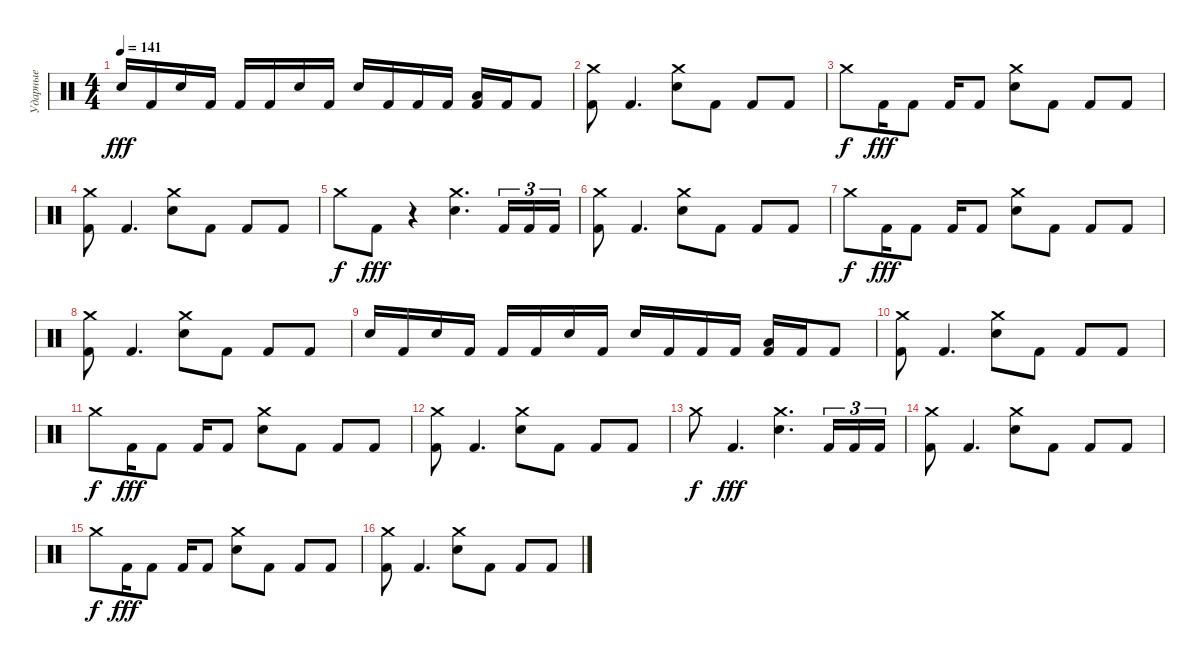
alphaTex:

\track ("Ударные" "Ударные") {instrument percussion}
\staff {score}
\articulation defaults
\ts (4 4)
\tempo 141
\clef neutral
\ks c "Electric Snare (hit)".16{dy fff} "Kick (hit) 2".16 "Electric Snare (hit)".16 "Kick (hit) 2".16 "Kick (hit) 2".16 "Kick (hit) 2".16 "Electric Snare (hit)".16 "Kick (hit) 2".16 "Electric Snare (hit)".16 "Kick (hit) 2".16 "Kick (hit) 2".16 "Kick (hit) 2".16
("Low Tom (hit)" "Kick (hit) 2").16 "Kick (hit) 2".16 "Kick (hit) 2".8 |
("Crash medium (hit)" "Kick (hit) 2").8 "Kick (hit) 2".4{d} ("Crash medium (hit)" "Electric Snare (hit)").8 "Kick (hit) 2".8 "Kick (hit) 2".8 "Kick (hit) 2".8 |
"Crash medium (hit)".8{dy f} "Kick (hit) 2".16{dy fff} "Kick (hit) 2".8 "Kick (hit) 2".16 "Kick (hit) 2".8 ("Crash medium (hit)" "Electric Snare (hit)").8 "Kick (hit) 2".8 "Kick (hit) 2".8 "Kick (hit) 2".8 |
("Crash medium (hit)" "Kick (hit) 2").8 "Kick (hit) 2".4{d} ("Crash medium (hit)" "Electric Snare (hit)").8 "Kick (hit) 2".8 "Kick (hit) 2".8 "Kick (hit) 2".8 |
"Crash medium (hit)".8{dy f} "Kick (hit) 2".8{dy fff} r.4 ("Crash medium (hit)" "Electric Snare (hit)").4{d} "Kick (hit) 2".16{tu (3 2)} "Kick (hit) 2".16{tu (3 2)} "Kick (hit) 2".16{tu (3 2)} |
("Crash medium (hit)" "Kick (hit) 2").8 "Kick (hit) 2".4{d} ("Crash medium (hit)" "Electric Snare (hit)").8 "Kick (hit) 2".8 "Kick (hit) 2".8 "Kick (hit) 2".8 |
"Crash medium (hit)".8{dy f} "Kick (hit) 2".16{dy fff} "Kick (hit) 2".8 "Kick (hit) 2".16 "Kick (hit) 2".8 ("Crash medium (hit)" "Electric Snare (hit)").8 "Kick (hit) 2".8 "Kick (hit) 2".8 "Kick (hit) 2".8 |
("Crash medium (hit)" "Kick (hit) 2").8 "Kick (hit) 2".4{d} ("Crash medium (hit)" "Electric Snare (hit)").8 "Kick (hit) 2".8 "Kick (hit) 2".8 "Kick (hit) 2".8 |
"Electric Snare (hit)".16 "Kick (hit) 2".16 "Electric Snare (hit)".16 "Kick (hit) 2".16 "Kick (hit) 2".16 "Kick (hit) 2".16 "Electric Snare (hit)".16 "Kick (hit) 2".16 "Electric Snare (hit)".16 "Kick (hit) 2".16 "Kick (hit) 2".16 "Kick (hit) 2".16 ("Low Tom (hit)" "Kick (hit) 2").16 "Kick (hit) 2".16 "Kick (hit) 2".8 |
("Crash medium (hit)" "Kick (hit) 2").8 "Kick (hit) 2".4{d} ("Crash medium (hit)" "Electric Snare (hit)").8 "Kick (hit) 2".8 "Kick (hit) 2".8 "Kick (hit) 2".8 |
"Crash medium (hit)".8{dy f} "Kick (hit) 2".16{dy fff} "Kick (hit) 2".8 "Kick (hit) 2".16 "Kick (hit) 2".8 ("Crash medium (hit)" "Electric Snare (hit)").8 "Kick (hit) 2".8 "Kick (hit) 2".8 "Kick (hit) 2".8 |
("Crash medium (hit)" "Kick (hit) 2").8 "Kick (hit) 2".4{d} ("Crash medium (hit)" "Electric Snare (hit)").8 "Kick (hit) 2".8 "Kick (hit) 2".8 "Kick (hit) 2".8 |
"Crash medium (hit)".8{dy f} "Kick (hit) 2".4{d dy fff} ("Crash medium (hit)" "Electric Snare (hit)").4{d} "Kick (hit) 2".16{tu (3 2)} "Kick (hit) 2".16{tu (3 2)} "Kick (hit) 2".16{tu (3 2)} |
("Crash medium (hit)" "Kick (hit) 2").8 "Kick (hit) 2".4{d} ("Crash medium (hit)" "Electric Snare (hit)").8 "Kick (hit) 2".8 "Kick (hit) 2".8 "Kick (hit) 2".8 |
"Crash medium (hit)".8{dy f} "Kick (hit) 2".16{dy fff} "Kick (hit) 2".8 "Kick (hit) 2".16 "Kick (hit) 2".8 ("Crash medium (hit)" "Electric Snare (hit)").8 "Kick (hit) 2".8 "Kick (hit) 2".8 "Kick (hit) 2".8 |
("Crash medium (hit)" "Kick (hit) 2").8 "Kick (hit) 2".4{d} ("Crash medium (hit)" "Electric Snare (hit)").8 "Kick (hit) 2".8 "Kick (hit) 2".8 "Kick (hit) 2".8
